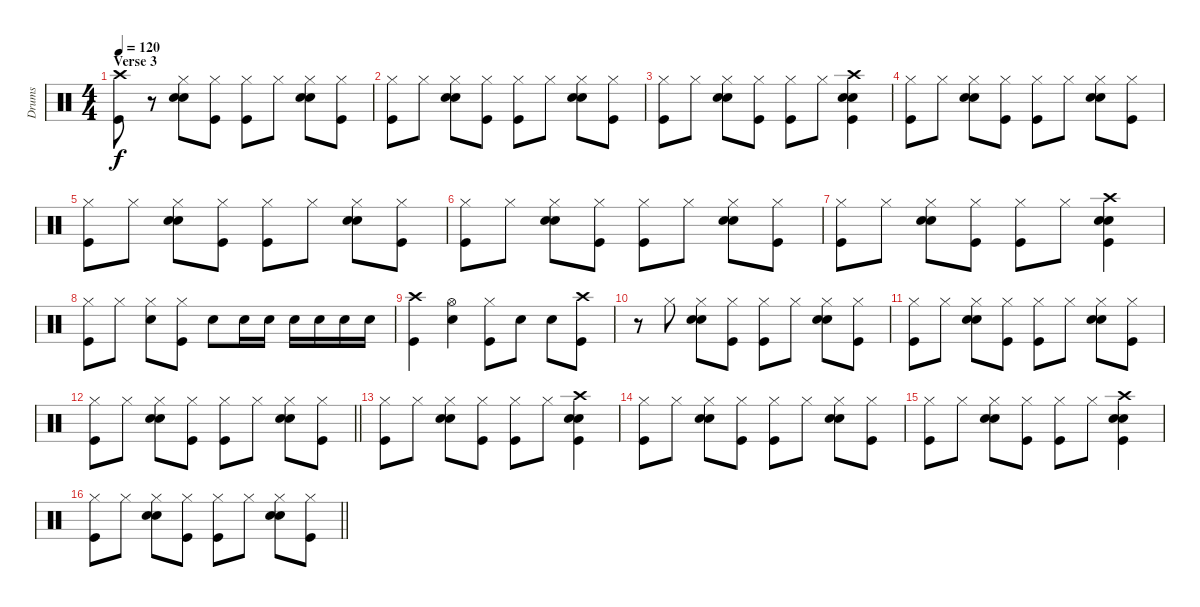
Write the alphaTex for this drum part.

\track ("Drums" "Drums") {instrument percussion}
\staff {score}
\articulation defaults
\ts (4 4)
\section ("" "Verse 3")
\tempo 120
\clef neutral
\ks c
("Crash high (hit)" "Kick (hit)").8{dy f} r.8 ("Hi-Hat (closed)" "Snare (hit) 2" "Hand Clap (hit)").8 ("Hi-Hat (closed)" "Kick (hit)").8 ("Hi-Hat (closed)" "Kick (hit)").8 "Hi-Hat (closed)".8 ("Hi-Hat (closed)" "Snare (hit) 2" "Hand Clap (hit)").8 ("Hi-Hat (closed)" "Kick (hit)").8 |
("Hi-Hat (closed)" "Kick (hit)").8 "Hi-Hat (closed)".8 ("Hi-Hat (closed)" "Snare (hit) 2" "Hand Clap (hit)").8 ("Hi-Hat (closed)" "Kick (hit)").8 ("Hi-Hat (closed)" "Kick (hit)").8 "Hi-Hat (closed)".8 ("Hi-Hat (closed)" "Snare (hit) 2" "Hand Clap (hit)").8 ("Hi-Hat (closed)" "Kick (hit)").8 |
("Hi-Hat (closed)" "Kick (hit)").8 "Hi-Hat (closed)".8 ("Hi-Hat (closed)" "Snare (hit) 2" "Hand Clap (hit)").8 ("Hi-Hat (closed)" "Kick (hit)").8 ("Hi-Hat (closed)" "Kick (hit)").8 "Hi-Hat (closed)".8 ("Crash high (hit)" "Snare (hit) 2" "Hand Clap (hit)" "Kick (hit)").4 |
("Hi-Hat (closed)" "Kick (hit)").8 "Hi-Hat (closed)".8 ("Hi-Hat (closed)" "Snare (hit) 2" "Hand Clap (hit)").8 ("Hi-Hat (closed)" "Kick (hit)").8 ("Hi-Hat (closed)" "Kick (hit)").8 "Hi-Hat (closed)".8 ("Hi-Hat (closed)" "Snare (hit) 2" "Hand Clap (hit)").8 ("Hi-Hat (closed)" "Kick (hit)").8 |
("Hi-Hat (closed)" "Kick (hit)").8 "Hi-Hat (closed)".8 ("Hi-Hat (closed)" "Snare (hit) 2" "Hand Clap (hit)").8 ("Hi-Hat (closed)" "Kick (hit)").8 ("Hi-Hat (closed)" "Kick (hit)").8 "Hi-Hat (closed)".8 ("Hi-Hat (closed)" "Snare (hit) 2" "Hand Clap (hit)").8 ("Hi-Hat (closed)" "Kick (hit)").8 |
("Hi-Hat (closed)" "Kick (hit)").8 "Hi-Hat (closed)".8 ("Hi-Hat (closed)" "Snare (hit) 2" "Hand Clap (hit)").8 ("Hi-Hat (closed)" "Kick (hit)").8 ("Hi-Hat (closed)" "Kick (hit)").8 "Hi-Hat (closed)".8 ("Hi-Hat (closed)" "Snare (hit) 2" "Hand Clap (hit)").8 ("Hi-Hat (closed)" "Kick (hit)").8 |
("Hi-Hat (closed)" "Kick (hit)").8 "Hi-Hat (closed)".8 ("Hi-Hat (closed)" "Snare (hit) 2" "Hand Clap (hit)").8 ("Hi-Hat (closed)" "Kick (hit)").8 ("Hi-Hat (closed)" "Kick (hit)").8 "Hi-Hat (closed)".8 ("Crash high (hit)" "Snare (hit) 2" "Hand Clap (hit)" "Kick (hit)").4 |
("Hi-Hat (closed)" "Kick (hit)").8 "Hi-Hat (closed)".8 ("Hi-Hat (closed)" "Snare (hit) 2").8 ("Hi-Hat (closed)" "Kick (hit)").8 "Snare (hit) 2".8 "Snare (hit) 2".16 "Snare (hit) 2".16 "Snare (hit) 2".16 "Snare (hit) 2".16 "Snare (hit) 2".16 "Snare (hit) 2".16 |
("Crash high (hit)" "Kick (hit)").4 ("Hi-Hat (open)" "Snare (hit) 2").4 ("Hi-Hat (closed)" "Kick (hit)").8 "Snare (hit) 2".8 "Snare (hit) 2".8 ("Crash high (hit)" "Kick (hit)").8 |
r.8 "Hi-Hat (closed)".8 ("Hi-Hat (closed)" "Snare (hit) 2" "Hand Clap (hit)").8 ("Hi-Hat (closed)" "Kick (hit)").8 ("Hi-Hat (closed)" "Kick (hit)").8 "Hi-Hat (closed)".8 ("Hi-Hat (closed)" "Snare (hit) 2" "Hand Clap (hit)").8 ("Hi-Hat (closed)" "Kick (hit)").8 |
("Hi-Hat (closed)" "Kick (hit)").8 "Hi-Hat (closed)".8 ("Hi-Hat (closed)" "Snare (hit) 2" "Hand Clap (hit)").8 ("Hi-Hat (closed)" "Kick (hit)").8 ("Hi-Hat (closed)" "Kick (hit)").8 "Hi-Hat (closed)".8 ("Hi-Hat (closed)" "Snare (hit) 2" "Hand Clap (hit)").8 ("Hi-Hat (closed)" "Kick (hit)").8 |
\barLineRight lightlight
("Hi-Hat (closed)" "Kick (hit)").8 "Hi-Hat (closed)".8 ("Hi-Hat (closed)" "Snare (hit) 2" "Hand Clap (hit)").8 ("Hi-Hat (closed)" "Kick (hit)").8 ("Hi-Hat (closed)" "Kick (hit)").8 "Hi-Hat (closed)".8 ("Hi-Hat (closed)" "Snare (hit) 2" "Hand Clap (hit)").8 ("Hi-Hat (closed)" "Kick (hit)").8 |
("Hi-Hat (closed)" "Kick (hit)").8 "Hi-Hat (closed)".8 ("Hi-Hat (closed)" "Snare (hit) 2" "Hand Clap (hit)").8 ("Hi-Hat (closed)" "Kick (hit)").8 ("Hi-Hat (closed)" "Kick (hit)").8 "Hi-Hat (closed)".8 ("Crash high (hit)" "Snare (hit) 2" "Hand Clap (hit)" "Kick (hit)").4 |
("Hi-Hat (closed)" "Kick (hit)").8 "Hi-Hat (closed)".8 ("Hi-Hat (closed)" "Snare (hit) 2" "Hand Clap (hit)").8 ("Hi-Hat (closed)" "Kick (hit)").8 ("Hi-Hat (closed)" "Kick (hit)").8 "Hi-Hat (closed)".8 ("Hi-Hat (closed)" "Snare (hit) 2" "Hand Clap (hit)").8 ("Hi-Hat (closed)" "Kick (hit)").8 |
("Hi-Hat (closed)" "Kick (hit)").8 "Hi-Hat (closed)".8 ("Hi-Hat (closed)" "Snare (hit) 2" "Hand Clap (hit)").8 ("Hi-Hat (closed)" "Kick (hit)").8 ("Hi-Hat (closed)" "Kick (hit)").8 "Hi-Hat (closed)".8 ("Crash high (hit)" "Snare (hit) 2" "Hand Clap (hit)" "Kick (hit)").4 |
\barLineRight lightlight
("Hi-Hat (closed)" "Kick (hit)").8 "Hi-Hat (closed)".8 ("Hi-Hat (closed)" "Snare (hit) 2" "Hand Clap (hit)").8 ("Hi-Hat (closed)" "Kick (hit)").8 ("Hi-Hat (closed)" "Kick (hit)").8 "Hi-Hat (closed)".8 ("Hi-Hat (closed)" "Snare (hit) 2" "Hand Clap (hit)").8 ("Hi-Hat (closed)" "Kick (hit)").8
